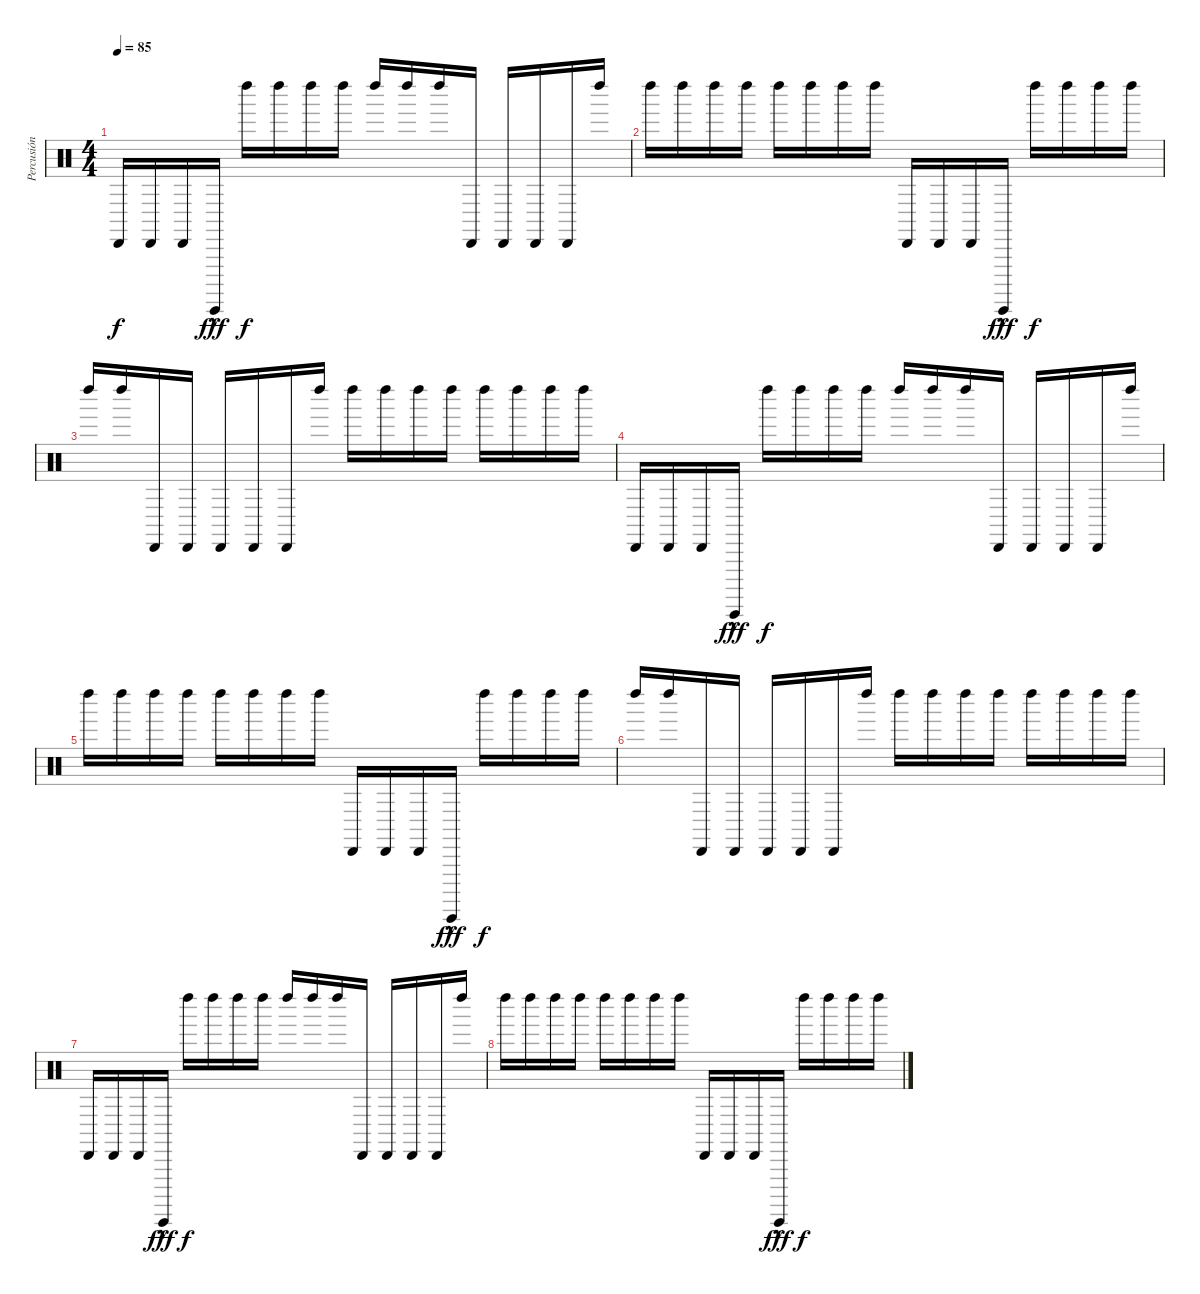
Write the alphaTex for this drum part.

\track ("Percusión" "Percusión") {instrument percussion}
\staff {score}
\articulation defaults
\ts (4 4)
\tempo 85
\clef neutral
\ks c "Cabasa (hit)".16{dy f} "Cabasa (hit)".16 "Cabasa (hit)".16 "Guiro (hit)"{hac}.16{dy fff} "Left Maraca (hit)".16{dy f} "Left Maraca (hit)".16 "Left Maraca (hit)".16 "Left Maraca (hit)".16 "Left Maraca (hit)".16 "Left Maraca (hit)".16 "Left Maraca (hit)".16 "Cabasa (hit)".16 "Cabasa (hit)".16 "Cabasa (hit)".16 "Cabasa (hit)".16 "Left Maraca (hit)".16
|
"Left Maraca (hit)".16 "Left Maraca (hit)".16 "Left Maraca (hit)".16 "Left Maraca (hit)".16 "Left Maraca (hit)".16 "Left Maraca (hit)".16 "Left Maraca (hit)".16 "Left Maraca (hit)".16 "Cabasa (hit)".16 "Cabasa (hit)".16 "Cabasa (hit)".16 "Guiro (hit)"{hac}.16{dy fff} "Left Maraca (hit)".16{dy f} "Left Maraca (hit)".16 "Left Maraca (hit)".16 "Left Maraca (hit)".16 |
"Left Maraca (hit)".16 "Left Maraca (hit)".16 "Cabasa (hit)".16 "Cabasa (hit)".16 "Cabasa (hit)".16 "Cabasa (hit)".16 "Cabasa (hit)".16 "Left Maraca (hit)".16 "Left Maraca (hit)".16 "Left Maraca (hit)".16 "Left Maraca (hit)".16 "Left Maraca (hit)".16 "Left Maraca (hit)".16 "Left Maraca (hit)".16 "Left Maraca (hit)".16 "Left Maraca (hit)".16 |
"Cabasa (hit)".16{volume 8} "Cabasa (hit)".16 "Cabasa (hit)".16 "Guiro (hit)"{hac}.16{dy fff} "Left Maraca (hit)".16{dy f} "Left Maraca (hit)".16 "Left Maraca (hit)".16 "Left Maraca (hit)".16 "Left Maraca (hit)".16 "Left Maraca (hit)".16 "Left Maraca (hit)".16 "Cabasa (hit)".16 "Cabasa (hit)".16 "Cabasa (hit)".16 "Cabasa (hit)".16 "Left Maraca (hit)".16 |
"Left Maraca (hit)".16 "Left Maraca (hit)".16 "Left Maraca (hit)".16 "Left Maraca (hit)".16 "Left Maraca (hit)".16 "Left Maraca (hit)".16 "Left Maraca (hit)".16 "Left Maraca (hit)".16 "Cabasa (hit)".16 "Cabasa (hit)".16 "Cabasa (hit)".16 "Guiro (hit)"{hac}.16{dy fff} "Left Maraca (hit)".16{dy f} "Left Maraca (hit)".16 "Left Maraca (hit)".16 "Left Maraca (hit)".16 |
"Left Maraca (hit)".16 "Left Maraca (hit)".16 "Cabasa (hit)".16 "Cabasa (hit)".16 "Cabasa (hit)".16 "Cabasa (hit)".16 "Cabasa (hit)".16 "Left Maraca (hit)".16 "Left Maraca (hit)".16 "Left Maraca (hit)".16 "Left Maraca (hit)".16 "Left Maraca (hit)".16 "Left Maraca (hit)".16 "Left Maraca (hit)".16 "Left Maraca (hit)".16 "Left Maraca (hit)".16 |
"Cabasa (hit)".16 "Cabasa (hit)".16 "Cabasa (hit)".16 "Guiro (hit)"{hac}.16{dy fff} "Left Maraca (hit)".16{dy f} "Left Maraca (hit)".16 "Left Maraca (hit)".16 "Left Maraca (hit)".16 "Left Maraca (hit)".16 "Left Maraca (hit)".16 "Left Maraca (hit)".16 "Cabasa (hit)".16 "Cabasa (hit)".16 "Cabasa (hit)".16 "Cabasa (hit)".16 "Left Maraca (hit)".16 |
"Left Maraca (hit)".16 "Left Maraca (hit)".16 "Left Maraca (hit)".16 "Left Maraca (hit)".16 "Left Maraca (hit)".16 "Left Maraca (hit)".16 "Left Maraca (hit)".16 "Left Maraca (hit)".16 "Cabasa (hit)".16 "Cabasa (hit)".16 "Cabasa (hit)".16 "Guiro (hit)"{hac}.16{dy fff} "Left Maraca (hit)".16{dy f} "Left Maraca (hit)".16 "Left Maraca (hit)".16 "Left Maraca (hit)".16
